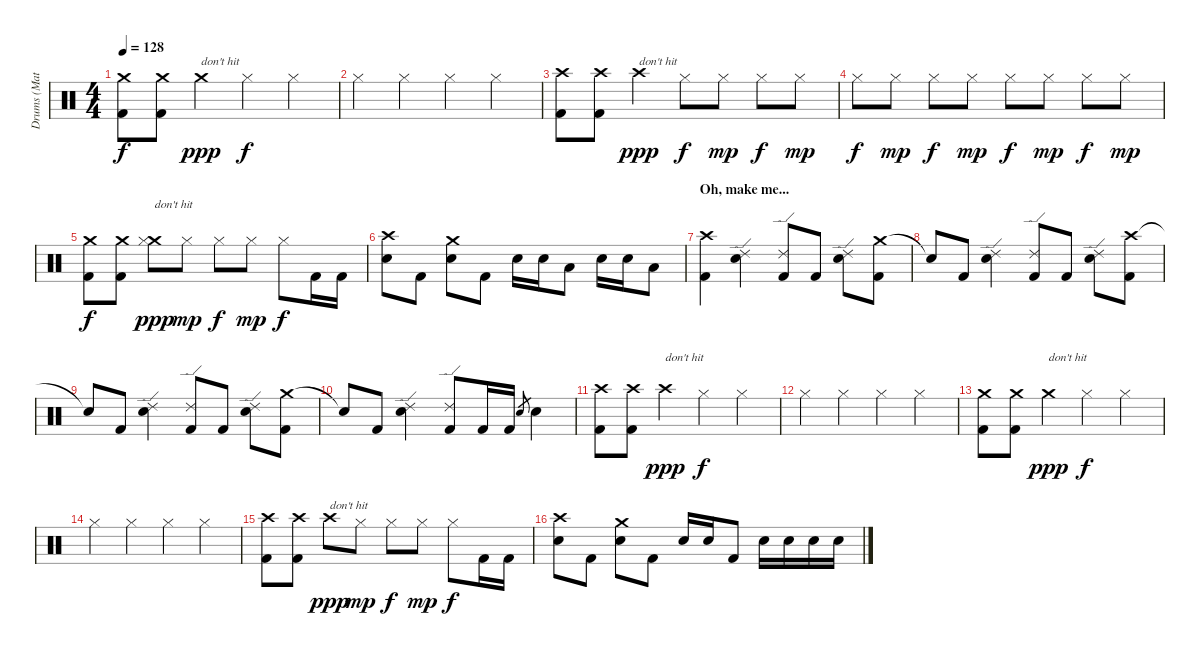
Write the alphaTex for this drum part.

\track ("Drums (Matt)" "Drums (Mat") {instrument percussion}
\staff {score}
\articulation defaults
\ts (4 4)
\tempo 128
\clef neutral
\ks c
("Crash medium (hit)" "Kick (hit) 2").8{dy f} ("Crash medium (hit)" "Kick (hit) 2").8 "Crash medium (hit)".4{txt "don't hit" dy ppp} "Hi-Hat (closed)".4{dy f} "Hi-Hat (closed)".4 |
"Hi-Hat (closed)".4 "Hi-Hat (closed)".4 "Hi-Hat (closed)".4 "Hi-Hat (closed)".4 |
("Crash high (hit)" "Kick (hit) 2").8 ("Crash high (hit)" "Kick (hit) 2").8 "Crash high (hit)".4{txt "don't hit" dy ppp} "Hi-Hat (closed)".8{dy f} "Hi-Hat (closed)".8{dy mp} "Hi-Hat (closed)".8{dy f} "Hi-Hat (closed)".8{dy mp} |
"Hi-Hat (closed)".8{dy f} "Hi-Hat (closed)".8{dy mp} "Hi-Hat (closed)".8{dy f} "Hi-Hat (closed)".8{dy mp} "Hi-Hat (closed)".8{dy f} "Hi-Hat (closed)".8{dy mp} "Hi-Hat (closed)".8{dy f} "Hi-Hat (closed)".8{dy mp} |
("Crash medium (hit)" "Kick (hit) 2").8{dy f} ("Crash medium (hit)" "Kick (hit) 2").8 ("Crash medium (hit)" "Hi-Hat (closed)").8{txt "don't hit" dy ppp} "Hi-Hat (closed)".8{dy mp} "Hi-Hat (closed)".8{dy f} "Hi-Hat (closed)".8{dy mp} "Hi-Hat (closed)".8{dy f} "Kick (hit) 2".16 "Kick (hit) 2".16 |
("Crash high (hit)" "Snare (hit) 2").8 "Kick (hit) 2".8 ("Crash medium (hit)" "Snare (hit) 2").8 "Kick (hit) 2".8 "Snare (hit) 2".16 "Snare (hit) 2".16 "Low Tom (hit)".8 "Snare (hit) 2".16 "Snare (hit) 2".16 "Low Tom (hit)".8 |
\section ("" "Oh, make me...")
("Crash high (hit)" "Kick (hit) 2").4 ("Ride (edge) 2" "Snare (hit) 2").4 ("Ride (edge) 2" "Kick (hit) 2").8 "Kick (hit) 2".8 ("Ride (edge) 2" "Snare (hit) 2").8 ("Crash medium (hit)" "Kick (hit) 2").8 |
"Snare (hit)"{t}.8 "Kick (hit) 2".8 ("Ride (edge) 2" "Snare (hit) 2").4 ("Ride (edge) 2" "Kick (hit) 2").8 "Kick (hit) 2".8 ("Ride (edge) 2" "Snare (hit) 2").8 ("Crash high (hit)" "Kick (hit) 2").8 |
"Snare (hit)"{t}.8 "Kick (hit) 2".8 ("Ride (edge) 2" "Snare (hit) 2").4 ("Ride (edge) 2" "Kick (hit) 2").8 "Kick (hit) 2".8 ("Ride (edge) 2" "Snare (hit) 2").8 ("Crash medium (hit)" "Kick (hit) 2").8 |
"Snare (hit)"{t}.8 "Kick (hit) 2".8 ("Ride (edge) 2" "Snare (hit) 2").4 ("Ride (edge) 2" "Kick (hit) 2").8 "Kick (hit) 2".16 "Kick (hit) 2".16 "Snare (hit) 2".8{gr} "Snare (hit) 2".4 |
("Crash high (hit)" "Kick (hit) 2").8 ("Crash high (hit)" "Kick (hit) 2").8 "Crash high (hit)".4{txt "don't hit" dy ppp} "Hi-Hat (closed)".4{dy f} "Hi-Hat (closed)".4 |
"Hi-Hat (closed)".4 "Hi-Hat (closed)".4 "Hi-Hat (closed)".4 "Hi-Hat (closed)".4 |
("Crash medium (hit)" "Kick (hit) 2").8 ("Crash medium (hit)" "Kick (hit) 2").8 "Crash medium (hit)".4{txt "don't hit" dy ppp} "Hi-Hat (closed)".4{dy f} "Hi-Hat (closed)".4 |
"Hi-Hat (closed)".4 "Hi-Hat (closed)".4 "Hi-Hat (closed)".4 "Hi-Hat (closed)".4 |
("Crash high (hit)" "Kick (hit) 2").8 ("Crash high (hit)" "Kick (hit) 2").8 "Crash high (hit)".8{txt "don't hit" dy ppp} "Hi-Hat (closed)".8{dy mp} "Hi-Hat (closed)".8{dy f} "Hi-Hat (closed)".8{dy mp} "Hi-Hat (closed)".8{dy f} "Kick (hit) 2".16 "Kick (hit) 2".16 |
("Crash high (hit)" "Snare (hit) 2").8 "Kick (hit) 2".8 ("Crash medium (hit)" "Snare (hit) 2").8 "Kick (hit) 2".8 "Snare (hit) 2".16 "Snare (hit) 2".16 "Kick (hit) 2".8 "Snare (hit) 2".16 "Snare (hit) 2".16 "Snare (hit) 2".16 "Snare (hit) 2".16
